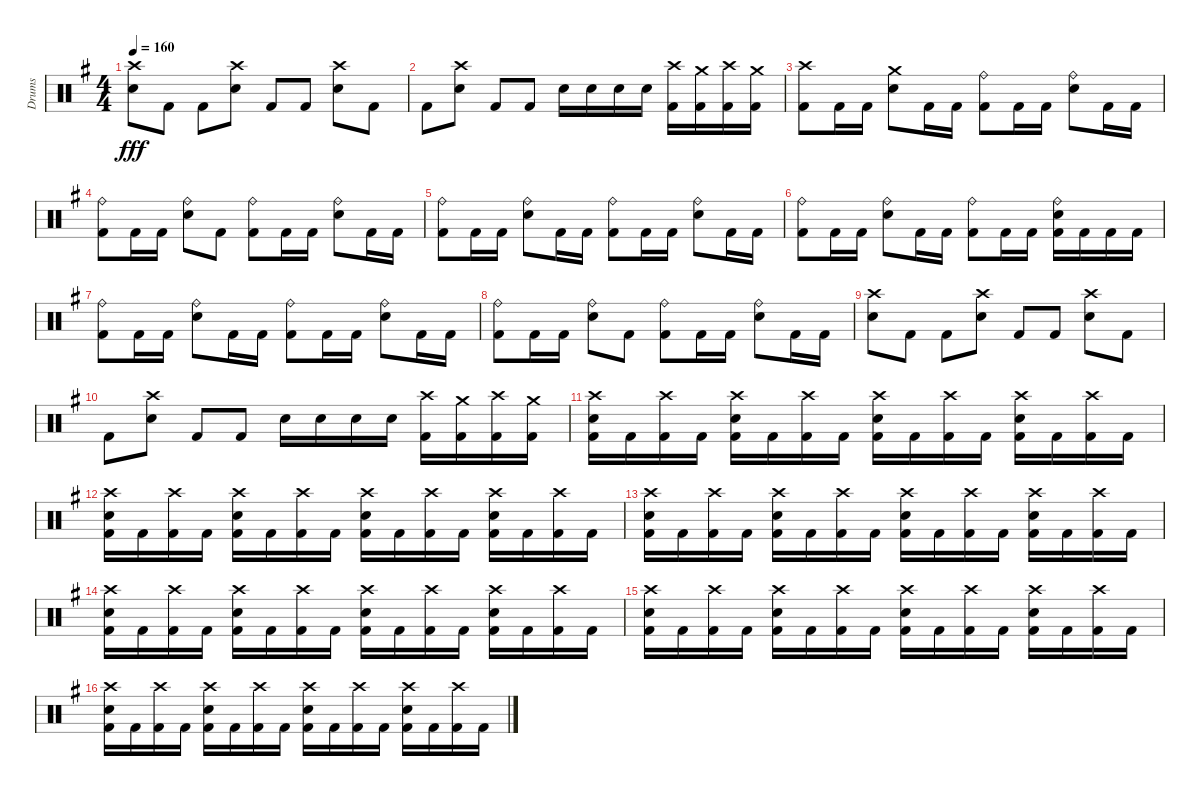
\track ("Drums" "Drums") {instrument percussion}
\staff {score}
\articulation defaults
\ts (4 4)
\tempo 160
\clef neutral
\ks g
("Crash high (hit)" "Snare (hit) 2").8{dy fff} "Kick (hit) 2".8 "Kick (hit) 2".8 ("Crash high (hit)" "Snare (hit) 2").8 "Kick (hit) 2".8 "Kick (hit) 2".8 ("Crash high (hit)" "Snare (hit) 2").8 "Kick (hit) 2".8 |
"Kick (hit) 2".8 ("Crash high (hit)" "Snare (hit) 2").8 "Kick (hit) 2".8 "Kick (hit) 2".8 "Snare (hit) 2".16 "Snare (hit) 2".16 "Snare (hit) 2".16 "Snare (hit) 2".16 ("Crash high (hit)" "Kick (hit) 2").16 ("Crash medium (hit)" "Kick (hit) 2").16 ("Crash high (hit)" "Kick (hit) 2").16 ("Crash medium (hit)" "Kick (hit) 2").16 |
("Crash high (hit)" "Kick (hit) 2").8 "Kick (hit) 2".16 "Kick (hit) 2".16 ("Crash medium (hit)" "Snare (hit) 2").8 "Kick (hit) 2".16 "Kick (hit) 2".16 ("Ride (bell)" "Kick (hit) 2").8 "Kick (hit) 2".16 "Kick (hit) 2".16 ("Ride (bell)" "Snare (hit) 2").8 "Kick (hit) 2".16 "Kick (hit) 2".16 |
("Ride (bell)" "Kick (hit) 2").8 "Kick (hit) 2".16 "Kick (hit) 2".16 ("Ride (bell)" "Snare (hit) 2").8 "Kick (hit) 2".8 ("Ride (bell)" "Kick (hit) 2").8 "Kick (hit) 2".16 "Kick (hit) 2".16 ("Ride (bell)" "Snare (hit) 2").8 "Kick (hit) 2".16 "Kick (hit) 2".16 |
("Ride (bell)" "Kick (hit) 2").8 "Kick (hit) 2".16 "Kick (hit) 2".16 ("Ride (bell)" "Snare (hit) 2").8 "Kick (hit) 2".16 "Kick (hit) 2".16 ("Ride (bell)" "Kick (hit) 2").8 "Kick (hit) 2".16 "Kick (hit) 2".16 ("Ride (bell)" "Snare (hit) 2").8 "Kick (hit) 2".16 "Kick (hit) 2".16 |
("Ride (bell)" "Kick (hit) 2").8 "Kick (hit) 2".16 "Kick (hit) 2".16 ("Ride (bell)" "Snare (hit) 2").8 "Kick (hit) 2".16 "Kick (hit) 2".16 ("Ride (bell)" "Kick (hit) 2").8 "Kick (hit) 2".16 "Kick (hit) 2".16 ("Ride (bell)" "Snare (hit) 2" "Kick (hit) 2").16 "Kick (hit) 2".16 "Kick (hit) 2".16 "Kick (hit) 2".16 |
("Ride (bell)" "Kick (hit) 2").8 "Kick (hit) 2".16 "Kick (hit) 2".16 ("Ride (bell)" "Snare (hit) 2").8 "Kick (hit) 2".16 "Kick (hit) 2".16 ("Ride (bell)" "Kick (hit) 2").8 "Kick (hit) 2".16 "Kick (hit) 2".16 ("Ride (bell)" "Snare (hit) 2").8 "Kick (hit) 2".16 "Kick (hit) 2".16 |
("Ride (bell)" "Kick (hit) 2").8 "Kick (hit) 2".16 "Kick (hit) 2".16 ("Ride (bell)" "Snare (hit) 2").8 "Kick (hit) 2".8 ("Ride (bell)" "Kick (hit) 2").8 "Kick (hit) 2".16 "Kick (hit) 2".16 ("Ride (bell)" "Snare (hit) 2").8 "Kick (hit) 2".16 "Kick (hit) 2".16 |
("Crash high (hit)" "Snare (hit) 2").8 "Kick (hit) 2".8 "Kick (hit) 2".8 ("Crash high (hit)" "Snare (hit) 2").8 "Kick (hit) 2".8 "Kick (hit) 2".8 ("Crash high (hit)" "Snare (hit) 2").8 "Kick (hit) 2".8 |
"Kick (hit) 2".8 ("Crash high (hit)" "Snare (hit) 2").8 "Kick (hit) 2".8 "Kick (hit) 2".8 "Snare (hit) 2".16 "Snare (hit) 2".16 "Snare (hit) 2".16 "Snare (hit) 2".16 ("Crash high (hit)" "Kick (hit) 2").16 ("Crash medium (hit)" "Kick (hit) 2").16 ("Crash high (hit)" "Kick (hit) 2").16 ("Crash medium (hit)" "Kick (hit) 2").16 |
("Crash high (hit)" "Snare (hit) 2" "Kick (hit) 2").16 "Kick (hit) 2".16 ("Crash high (hit)" "Kick (hit) 2").16 "Kick (hit) 2".16 ("Crash high (hit)" "Snare (hit) 2" "Kick (hit) 2").16 "Kick (hit) 2".16 ("Crash high (hit)" "Kick (hit) 2").16 "Kick (hit) 2".16 ("Crash high (hit)" "Snare (hit) 2" "Kick (hit) 2").16 "Kick (hit) 2".16 ("Crash high (hit)" "Kick (hit) 2").16 "Kick (hit) 2".16 ("Crash high (hit)" "Snare (hit) 2" "Kick (hit) 2").16 "Kick (hit) 2".16 ("Crash high (hit)" "Kick (hit) 2").16 "Kick (hit) 2".16 |
("Crash high (hit)" "Snare (hit) 2" "Kick (hit) 2").16 "Kick (hit) 2".16 ("Crash high (hit)" "Kick (hit) 2").16 "Kick (hit) 2".16 ("Crash high (hit)" "Snare (hit) 2" "Kick (hit) 2").16 "Kick (hit) 2".16 ("Crash high (hit)" "Kick (hit) 2").16 "Kick (hit) 2".16 ("Crash high (hit)" "Snare (hit) 2" "Kick (hit) 2").16 "Kick (hit) 2".16 ("Crash high (hit)" "Kick (hit) 2").16 "Kick (hit) 2".16 ("Crash high (hit)" "Snare (hit) 2" "Kick (hit) 2").16 "Kick (hit) 2".16 ("Crash high (hit)" "Kick (hit) 2").16 "Kick (hit) 2".16 |
("Crash high (hit)" "Snare (hit) 2" "Kick (hit) 2").16 "Kick (hit) 2".16 ("Crash high (hit)" "Kick (hit) 2").16 "Kick (hit) 2".16 ("Crash high (hit)" "Snare (hit) 2" "Kick (hit) 2").16 "Kick (hit) 2".16 ("Crash high (hit)" "Kick (hit) 2").16 "Kick (hit) 2".16 ("Crash high (hit)" "Snare (hit) 2" "Kick (hit) 2").16 "Kick (hit) 2".16 ("Crash high (hit)" "Kick (hit) 2").16 "Kick (hit) 2".16 ("Crash high (hit)" "Snare (hit) 2" "Kick (hit) 2").16 "Kick (hit) 2".16 ("Crash high (hit)" "Kick (hit) 2").16 "Kick (hit) 2".16 |
("Crash high (hit)" "Snare (hit) 2" "Kick (hit) 2").16 "Kick (hit) 2".16 ("Crash high (hit)" "Kick (hit) 2").16 "Kick (hit) 2".16 ("Crash high (hit)" "Snare (hit) 2" "Kick (hit) 2").16 "Kick (hit) 2".16 ("Crash high (hit)" "Kick (hit) 2").16 "Kick (hit) 2".16 ("Crash high (hit)" "Snare (hit) 2" "Kick (hit) 2").16 "Kick (hit) 2".16 ("Crash high (hit)" "Kick (hit) 2").16 "Kick (hit) 2".16 ("Crash high (hit)" "Snare (hit) 2" "Kick (hit) 2").16 "Kick (hit) 2".16 ("Crash high (hit)" "Kick (hit) 2").16 "Kick (hit) 2".16 |
("Crash high (hit)" "Snare (hit) 2" "Kick (hit) 2").16 "Kick (hit) 2".16 ("Crash high (hit)" "Kick (hit) 2").16 "Kick (hit) 2".16 ("Crash high (hit)" "Snare (hit) 2" "Kick (hit) 2").16 "Kick (hit) 2".16 ("Crash high (hit)" "Kick (hit) 2").16 "Kick (hit) 2".16 ("Crash high (hit)" "Snare (hit) 2" "Kick (hit) 2").16 "Kick (hit) 2".16 ("Crash high (hit)" "Kick (hit) 2").16 "Kick (hit) 2".16 ("Crash high (hit)" "Snare (hit) 2" "Kick (hit) 2").16 "Kick (hit) 2".16 ("Crash high (hit)" "Kick (hit) 2").16 "Kick (hit) 2".16 |
("Crash high (hit)" "Snare (hit) 2" "Kick (hit) 2").16 "Kick (hit) 2".16 ("Crash high (hit)" "Kick (hit) 2").16 "Kick (hit) 2".16 ("Crash high (hit)" "Snare (hit) 2" "Kick (hit) 2").16 "Kick (hit) 2".16 ("Crash high (hit)" "Kick (hit) 2").16 "Kick (hit) 2".16 ("Crash high (hit)" "Snare (hit) 2" "Kick (hit) 2").16 "Kick (hit) 2".16 ("Crash high (hit)" "Kick (hit) 2").16 "Kick (hit) 2".16 ("Crash high (hit)" "Snare (hit) 2" "Kick (hit) 2").16 "Kick (hit) 2".16 ("Crash high (hit)" "Kick (hit) 2").16 "Kick (hit) 2".16
